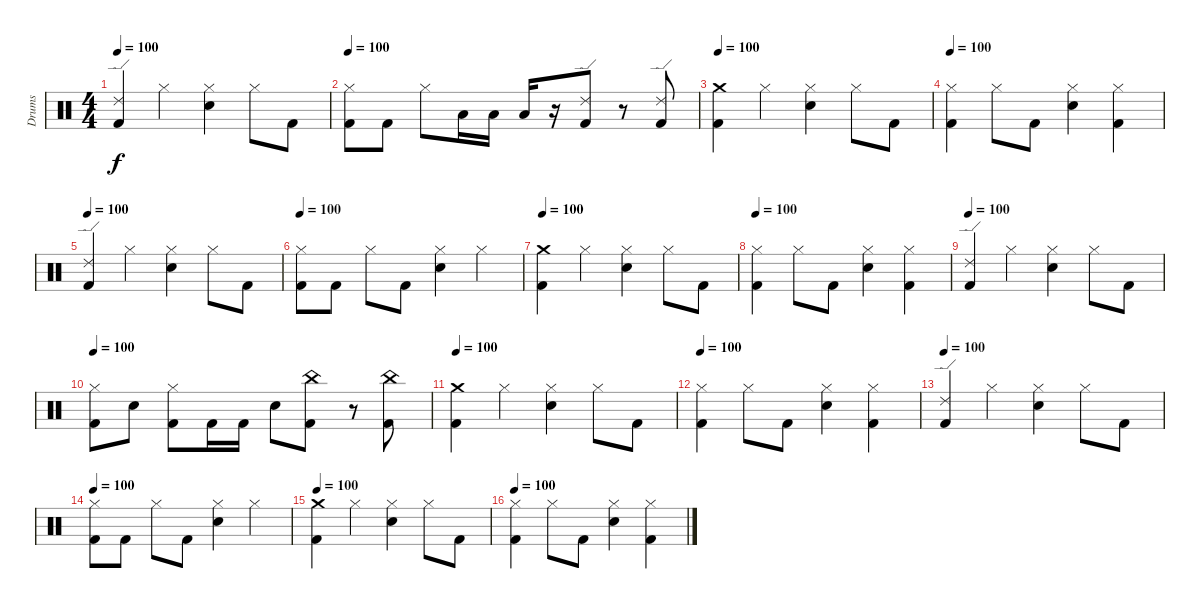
\track ("Drums" "Drums") {instrument percussion}
\staff {score}
\articulation defaults
\ts (4 4)
\tempo 100
\clef neutral
\ks c
("Kick (hit) 2" "Ride (edge) 2").4{dy f} "Hi-Hat (closed)".4 ("Hi-Hat (closed)" "Snare (hit) 2").4 "Hi-Hat (closed)".8 "Kick (hit) 2".8 |
\tempo 100
("Hi-Hat (closed)" "Kick (hit) 2").8 "Kick (hit) 2".8 "Hi-Hat (closed)".8 "Low Tom (hit)".16 "Low Tom (hit)".16 "Low Tom (hit)".16 r.16 ("Kick (hit) 2" "Ride (edge) 2").8 r.8 ("Ride (edge) 2" "Kick (hit) 2").8 |
\tempo 100
("Kick (hit) 2" "Crash medium (hit)").4 "Hi-Hat (closed)".4 ("Snare (hit) 2" "Hi-Hat (closed)").4 "Hi-Hat (closed)".8 "Kick (hit) 2".8 |
\tempo 100
("Hi-Hat (closed)" "Kick (hit) 2").4 "Hi-Hat (closed)".8 "Kick (hit) 2".8 ("Snare (hit) 2" "Hi-Hat (closed)").4 ("Kick (hit) 2" "Hi-Hat (closed)").4 |
\tempo 100
("Kick (hit) 2" "Ride (edge) 2").4 "Hi-Hat (closed)".4 ("Hi-Hat (closed)" "Snare (hit) 2").4 "Hi-Hat (closed)".8 "Kick (hit) 2".8 |
\tempo 100
("Hi-Hat (closed)" "Kick (hit) 2").8 "Kick (hit) 2".8 "Hi-Hat (closed)".8 "Kick (hit) 2".8 ("Snare (hit) 2" "Hi-Hat (closed)").4 "Hi-Hat (closed)".4 |
\tempo 100
("Kick (hit) 2" "Crash medium (hit)").4 "Hi-Hat (closed)".4 ("Snare (hit) 2" "Hi-Hat (closed)").4 "Hi-Hat (closed)".8 "Kick (hit) 2".8 |
\tempo 100
("Hi-Hat (closed)" "Kick (hit) 2").4 "Hi-Hat (closed)".8 "Kick (hit) 2".8 ("Snare (hit) 2" "Hi-Hat (closed)").4 ("Kick (hit) 2" "Hi-Hat (closed)").4 |
\tempo 100
("Kick (hit) 2" "Ride (edge) 2").4 "Hi-Hat (closed)".4 ("Hi-Hat (closed)" "Snare (hit) 2").4 "Hi-Hat (closed)".8 "Kick (hit) 2".8 |
\tempo 100
("Hi-Hat (closed)" "Kick (hit) 2").8 "Snare (hit) 2".8 ("Kick (hit) 2" "Hi-Hat (closed)").8 "Kick (hit) 2".16 "Kick (hit) 2".16 "Snare (hit) 2".8 ("Kick (hit) 2" "China (hit)").8 r.8 ("China (hit)" "Kick (hit) 2").8 |
\tempo 100
("Kick (hit) 2" "Crash medium (hit)").4 "Hi-Hat (closed)".4 ("Snare (hit) 2" "Hi-Hat (closed)").4 "Hi-Hat (closed)".8 "Kick (hit) 2".8 |
\tempo 100
("Hi-Hat (closed)" "Kick (hit) 2").4 "Hi-Hat (closed)".8 "Kick (hit) 2".8 ("Snare (hit) 2" "Hi-Hat (closed)").4 ("Kick (hit) 2" "Hi-Hat (closed)").4 |
\tempo 100
("Kick (hit) 2" "Ride (edge) 2").4 "Hi-Hat (closed)".4 ("Hi-Hat (closed)" "Snare (hit) 2").4 "Hi-Hat (closed)".8 "Kick (hit) 2".8 |
\tempo 100
("Hi-Hat (closed)" "Kick (hit) 2").8 "Kick (hit) 2".8 "Hi-Hat (closed)".8 "Kick (hit) 2".8 ("Snare (hit) 2" "Hi-Hat (closed)").4 "Hi-Hat (closed)".4 |
\tempo 100
("Kick (hit) 2" "Crash medium (hit)").4 "Hi-Hat (closed)".4 ("Snare (hit) 2" "Hi-Hat (closed)").4 "Hi-Hat (closed)".8 "Kick (hit) 2".8 |
\tempo 100
("Hi-Hat (closed)" "Kick (hit) 2").4 "Hi-Hat (closed)".8 "Kick (hit) 2".8 ("Snare (hit) 2" "Hi-Hat (closed)").4 ("Kick (hit) 2" "Hi-Hat (closed)").4
